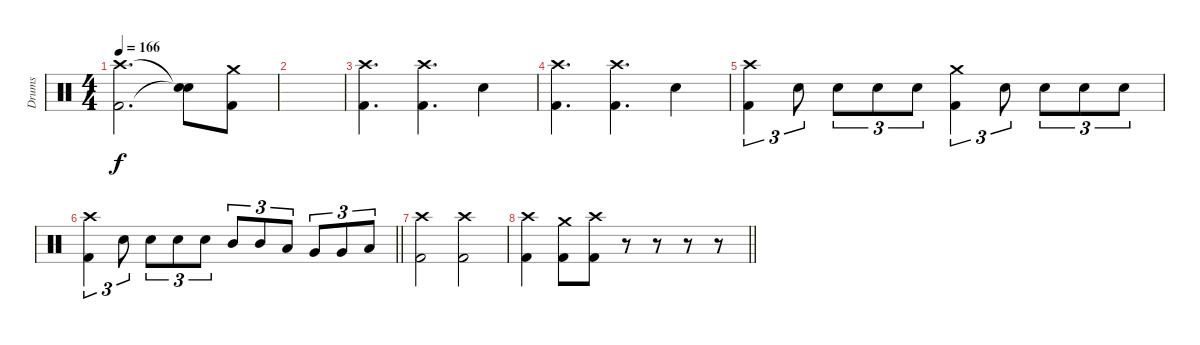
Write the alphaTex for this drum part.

\track ("Drums" "Drums") {instrument percussion}
\staff {score}
\articulation defaults
\ts (4 4)
\tempo 166
\clef neutral
\ks c
("Crash high (hit)" "Kick (hit) 2").2{d dy f} ("Snare (hit)"{t} "Snare (hit)"{t}).8 ("Crash medium (hit)" "Kick (hit) 2").8 |
|
("Crash high (hit)" "Kick (hit) 2").4{d} ("Crash high (hit)" "Kick (hit) 2").4{d} "Snare (hit) 2".4 |
("Crash high (hit)" "Kick (hit) 2").4{d} ("Crash high (hit)" "Kick (hit) 2").4{d} "Snare (hit) 2".4 |
("Crash high (hit)" "Kick (hit) 2").4{tu (3 2)} "Snare (hit) 2".8{tu (3 2)} "Snare (hit) 2".8{tu (3 2)} "Snare (hit) 2".8{tu (3 2)} "Snare (hit) 2".8{tu (3 2)} ("Crash medium (hit)" "Kick (hit) 2").4{tu (3 2)} "Snare (hit) 2".8{tu (3 2)} "Snare (hit) 2".8{tu (3 2)} "Snare (hit) 2".8{tu (3 2)} "Snare (hit) 2".8{tu (3 2)} |
\barLineRight lightlight
("Crash high (hit)" "Kick (hit) 2").4{tu (3 2)} "Snare (hit) 2".8{tu (3 2)} "Snare (hit) 2".8{tu (3 2)} "Snare (hit) 2".8{tu (3 2)} "Snare (hit) 2".8{tu (3 2)} "Mid Tom (hit)".8{tu (3 2)} "Mid Tom (hit)".8{tu (3 2)} "Low Tom (hit)".8{tu (3 2)} "Very Low Tom (hit)".8{tu (3 2)} "Very Low Tom (hit)".8{tu (3 2)} "Low Floor Tom (hit)".8{tu (3 2)} |
("Crash high (hit)" "Kick (hit) 2").2 ("Crash high (hit)" "Kick (hit) 2").2 |
\barLineRight lightlight
("Crash high (hit)" "Kick (hit) 2").4 ("Crash medium (hit)" "Kick (hit) 2").8 ("Crash high (hit)" "Kick (hit) 2").8 r.8 r.8 r.8 r.8
